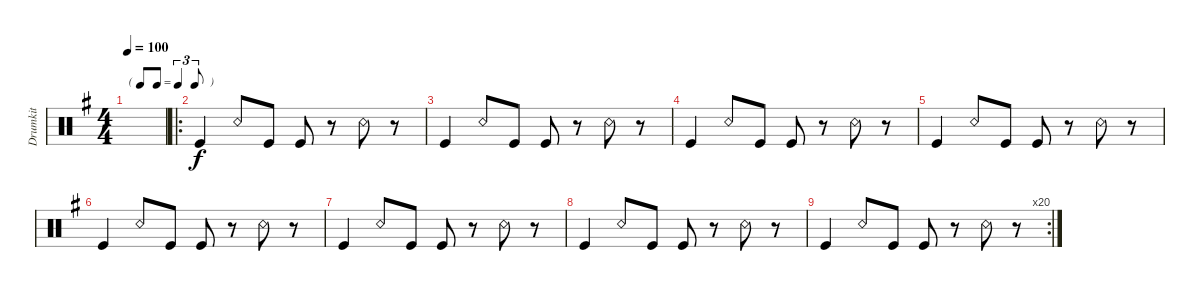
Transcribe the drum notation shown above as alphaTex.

\track ("Drumkit" "Drumkit") {instrument percussion}
\staff {score}
\articulation defaults
\ts (4 4)
\tf triplet8th
\tempo 100
\clef neutral
\ks g
|
\ro "Kick (hit)".4 "Snare (rim shot)".8 "Kick (hit)".8 "Kick (hit)".8
r.8 "Snare (rim shot)".8 r.8 |
"Kick (hit)".4 "Snare (rim shot)".8 "Kick (hit)".8 "Kick (hit)".8 r.8 "Snare (rim shot)".8 r.8 |
"Kick (hit)".4 "Snare (rim shot)".8 "Kick (hit)".8 "Kick (hit)".8 r.8 "Snare (rim shot)".8 r.8 |
"Kick (hit)".4 "Snare (rim shot)".8 "Kick (hit)".8 "Kick (hit)".8 r.8 "Snare (rim shot)".8 r.8 |
"Kick (hit)".4 "Snare (rim shot)".8 "Kick (hit)".8 "Kick (hit)".8 r.8 "Snare (rim shot)".8 r.8 |
"Kick (hit)".4 "Snare (rim shot)".8 "Kick (hit)".8 "Kick (hit)".8 r.8 "Snare (rim shot)".8 r.8 |
"Kick (hit)".4 "Snare (rim shot)".8 "Kick (hit)".8 "Kick (hit)".8 r.8 "Snare (rim shot)".8 r.8 |
\rc 20 "Kick (hit)".4 "Snare (rim shot)".8 "Kick (hit)".8 "Kick (hit)".8
r.8 "Snare (rim shot)".8 r.8
